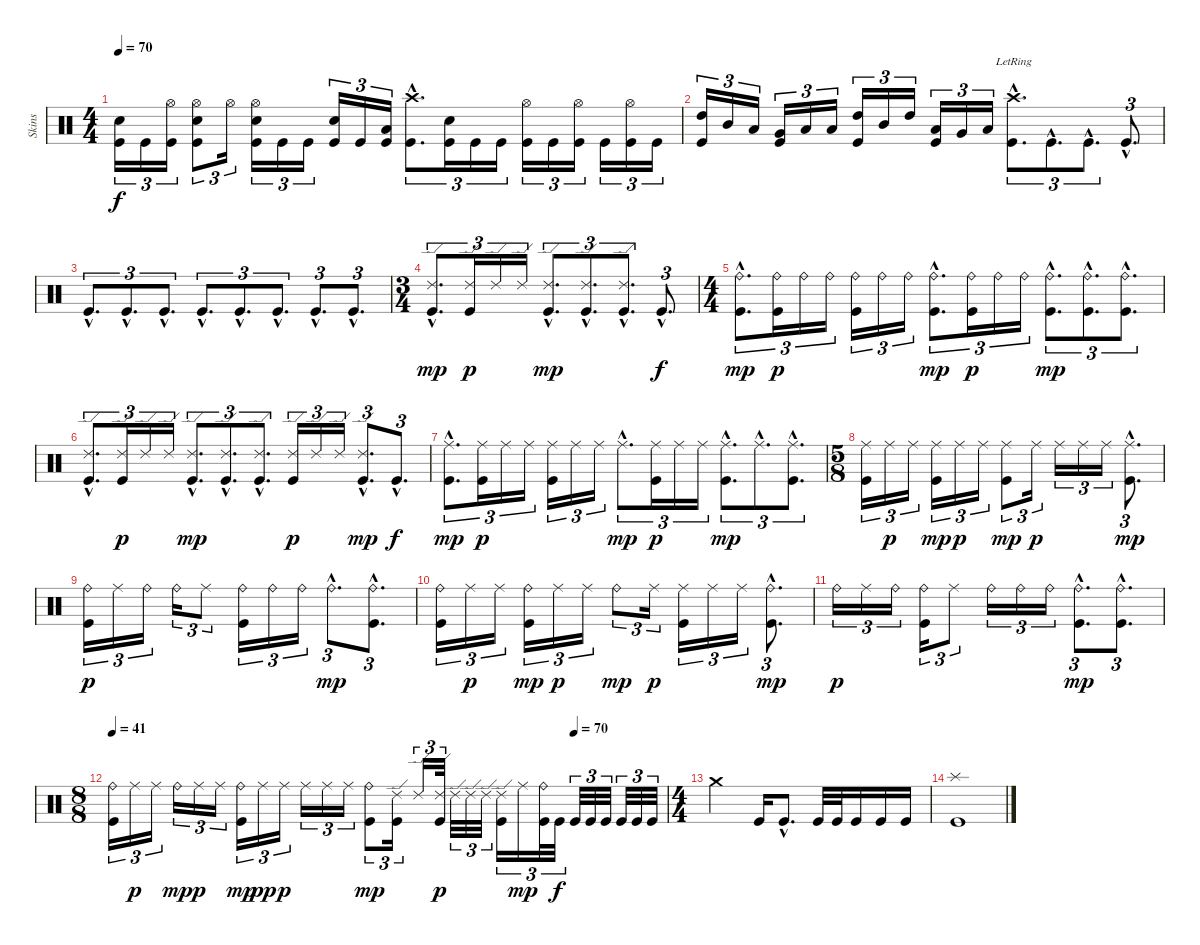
\track ("Skins" "Skins") {instrument percussion}
\staff {score}
\articulation defaults
\ts (4 4)
\tempo 70
\clef neutral
\ks c
("Snare (hit) 2" "Kick (hit)").16{tu (3 2) dy f} "Kick (hit)".16{tu (3 2)} ("Hi-Hat (open)" "Kick (hit)").16{tu (3 2)} ("Snare (hit) 2" "Hi-Hat (open)" "Kick (hit)").8{tu (3 2)} "Hi-Hat (open)".16{tu (3 2)} ("Snare (hit) 2" "Hi-Hat (open)" "Kick (hit)").16{tu (3 2)} "Kick (hit)".16{tu (3 2)} "Kick (hit)".16{tu (3 2)} ("Snare (hit) 2" "Kick (hit)").16{tu (3 2)} "Kick (hit)".16{tu (3 2)} ("Low Tom (hit)" "Kick (hit)").16{tu (3 2)} ("Crash high (hit)"{hac} "Kick (hit)"{hac}).8{d tu (3 2)} ("Snare (hit) 2" "Kick (hit)").16{tu (3 2)} "Kick (hit)".16{tu (3 2)} "Kick (hit)".16{tu (3 2)} ("Hi-Hat (open)" "Kick (hit)").16{tu (3 2)} "Kick (hit)".16{tu (3 2)} ("Hi-Hat (open)" "Kick (hit)").16{tu (3 2)} "Kick (hit)".16{tu (3 2)} ("Hi-Hat (open)" "Kick (hit)").16{tu (3 2)} "Kick (hit)".16{tu (3 2)} |
("High Tom (hit)" "Kick (hit)").16{tu (3 2)} "Mid Tom (hit)".16{tu (3 2)} "Low Tom (hit)".16{tu (3 2)} ("Very Low Tom (hit)" "Kick (hit)").16{tu (3 2)} "Low Floor Tom (hit)".16{tu (3 2)} "Low Floor Tom (hit)".16{tu (3 2)} ("High Tom (hit)" "Kick (hit)").16{tu (3 2)} "Mid Tom (hit)".16{tu (3 2)} "High Tom (hit)".16{tu (3 2)} ("Low Tom (hit)" "Kick (hit)").16{tu (3 2)} "Very Low Tom (hit)".16{tu (3 2)} "Low Floor Tom (hit)".16{tu (3 2)} ("Crash high (hit)"{hac lr} "Kick (hit)"{hac}).8{d tu (3 2)} "Kick (hit)"{hac}.8{d tu (3 2)} "Kick (hit)"{hac}.8{d tu (3 2)} "Kick (hit)"{hac}.8{d tu (3 2)} |
"Kick (hit)"{hac}.8{d tu (3 2)} "Kick (hit)"{hac}.8{d tu (3 2)} "Kick (hit)"{hac}.8{d tu (3 2)} "Kick (hit)"{hac}.8{d tu (3 2)} "Kick (hit)"{hac}.8{d tu (3 2)} "Kick (hit)"{hac}.8{d tu (3 2)} "Kick (hit)"{hac}.8{d tu (3 2)} "Kick (hit)"{hac}.8{d tu (3 2)} |
\ts (3 4)
("Ride (edge) 2"{hac} "Kick (hit)"{hac}).8{d tu (3 2) dy mp} ("Ride (edge) 2" "Kick (hit)").16{tu (3 2) dy p} "Ride (edge) 2".16{tu (3 2)} "Ride (edge) 2".16{tu (3 2)} ("Ride (edge) 2"{hac} "Kick (hit)"{hac}).8{d tu (3 2) dy mp} ("Ride (edge) 2"{hac} "Kick (hit)"{hac}).8{d tu (3 2)} ("Ride (edge) 2"{hac} "Kick (hit)"{hac}).8{d tu (3 2)} "Kick (hit)"{hac}.8{d tu (3 2) dy f} |
\ts (4 4)
("Ride (bell)"{hac} "Kick (hit)"{hac}).8{d tu (3 2) dy mp} ("Ride (bell)" "Kick (hit)").16{tu (3 2) dy p} "Ride (bell)".16{tu (3 2)} "Ride (bell)".16{tu (3 2)} ("Ride (bell)" "Kick (hit)").16{tu (3 2)} "Ride (bell)".16{tu (3 2)} "Ride (bell)".16{tu (3 2)} ("Ride (bell)"{hac} "Kick (hit)"{hac}).8{d tu (3 2) dy mp} ("Ride (bell)" "Kick (hit)").16{tu (3 2) dy p} "Ride (bell)".16{tu (3 2)} "Ride (bell)".16{tu (3 2)} ("Ride (bell)"{hac} "Kick (hit)"{hac}).8{d tu (3 2) dy mp} ("Ride (bell)"{hac} "Kick (hit)"{hac}).8{d tu (3 2)} ("Ride (bell)"{hac} "Kick (hit)"{hac}).8{d tu (3 2)} |
("Ride (edge) 2"{hac} "Kick (hit)"{hac}).8{d tu (3 2)} ("Ride (edge) 2" "Kick (hit)").16{tu (3 2) dy p} "Ride (edge) 2".16{tu (3 2)} "Ride (edge) 2".16{tu (3 2)} ("Ride (edge) 2"{hac} "Kick (hit)"{hac}).8{d tu (3 2) dy mp} ("Ride (edge) 2"{hac} "Kick (hit)"{hac}).8{d tu (3 2)} ("Ride (edge) 2"{hac} "Kick (hit)"{hac}).8{d tu (3 2)} ("Ride (edge) 2" "Kick (hit)").16{tu (3 2) dy p} "Ride (edge) 2".16{tu (3 2)} "Ride (edge) 2".16{tu (3 2)} ("Ride (edge) 2"{hac} "Kick (hit)"{hac}).8{d tu (3 2) dy mp} "Kick (hit)"{hac}.8{d tu (3 2) dy f} |
("Ride (middle)"{hac} "Kick (hit)"{hac}).8{d tu (3 2) dy mp} ("Ride (middle)" "Kick (hit)").16{tu (3 2) dy p} "Ride (middle)".16{tu (3 2)} "Ride (middle)".16{tu (3 2)} ("Ride (middle)" "Kick (hit)").16{tu (3 2)} "Ride (middle)".16{tu (3 2)} "Ride (middle)".16{tu (3 2)} "Ride (middle)"{hac}.8{d tu (3 2) dy mp} ("Ride (middle)" "Kick (hit)").16{tu (3 2) dy p} "Ride (middle)".16{tu (3 2)} "Ride (middle)".16{tu (3 2)} ("Ride (middle)"{hac} "Kick (hit)"{hac}).8{d tu (3 2) dy mp} "Ride (middle)"{hac}.8{d tu (3 2)} ("Ride (middle)"{hac} "Kick (hit)"{hac}).8{d tu (3 2)} |
\ts (5 8)
("Ride (middle)" "Kick (hit)").16{tu (3 2)} "Ride (middle)".16{tu (3 2) dy p} "Ride (middle)".16{tu (3 2)} ("Ride (middle)" "Kick (hit)").16{tu (3 2) dy mp} "Ride (middle)".16{tu (3 2) dy p} "Ride (middle)".16{tu (3 2)} ("Ride (middle)" "Kick (hit)").8{tu (3 2) dy mp} "Ride (middle)".16{tu (3 2) dy p} "Ride (middle)".16{tu (3 2)} "Ride (middle)".16{tu (3 2)} "Ride (middle)".16{tu (3 2)} ("Ride (middle)"{hac} "Kick (hit)"{hac}).8{d tu (3 2) dy mp} |
("Ride (bell)" "Kick (hit)").16{tu (3 2) dy p} "Ride (middle)".16{tu (3 2)} "Ride (bell)".16{tu (3 2)} "Ride (bell)".16{tu (3 2)} "Ride (middle)".8{tu (3 2)} ("Ride (bell)" "Kick (hit)").16{tu (3 2)} "Ride (bell)".16{tu (3 2)} "Ride (bell)".16{tu (3 2)} "Ride (bell)"{hac}.8{d tu (3 2) dy mp} ("Ride (bell)"{hac} "Kick (hit)"{hac}).8{d tu (3 2)} |
("Ride (bell)" "Kick (hit)").16{tu (3 2)} "Ride (middle)".16{tu (3 2) dy p} "Ride (middle)".16{tu (3 2)} ("Ride (bell)" "Kick (hit)").16{tu (3 2) dy mp} "Ride (middle)".16{tu (3 2) dy p} "Ride (middle)".16{tu (3 2)} "Ride (bell)".8{tu (3 2) dy mp} "Ride (middle)".16{tu (3 2) dy p} ("Ride (middle)" "Kick (hit)").16{tu (3 2)} "Ride (middle)".16{tu (3 2)} "Ride (middle)".16{tu (3 2)} ("Ride (bell)"{hac} "Kick (hit)"{hac}).8{d tu (3 2) dy mp} |
"Ride (bell)".16{tu (3 2) dy p} "Ride (middle)".16{tu (3 2)} "Ride (bell)".16{tu (3 2)} ("Ride (bell)" "Kick (hit)").16{tu (3 2)} "Ride (middle)".8{tu (3 2)} "Ride (bell)".16{tu (3 2)} "Ride (bell)".16{tu (3 2)} "Ride (bell)".16{tu (3 2)} ("Ride (bell)"{hac} "Kick (hit)"{hac}).8{d tu (3 2) dy mp} ("Ride (bell)"{hac} "Kick (hit)"{hac}).8{d tu (3 2)} |
\ts (8 8)
\tempo 41
\tempo (70 0.8333333333333334)
("Ride (bell)" "Kick (hit)").16{tu (3 2)} "Ride (middle)".16{tu (3 2) dy p} "Ride (middle)".16{tu (3 2)} "Ride (bell)".16{tu (3 2) dy mp} "Ride (middle)".16{tu (3 2) dy p} "Ride (middle)".16{tu (3 2)} ("Ride (bell)" "Kick (hit)").16{tu (3 2) dy mp} "Ride (middle)".16{tu (3 2) dy pp} "Ride (middle)".16{tu (3 2) dy p} "Ride (middle)".16{tu (3 2)} "Ride (middle)".16{tu (3 2)} "Ride (middle)".16{tu (3 2)} ("Ride (bell)" "Kick (hit)").8{tu (3 2) dy mp} ("Ride (edge) 2" "Kick (hit)").16{tu (3 2)} "Ride (edge) 2".16{tu (3 2)} ("Ride (edge) 2" "Kick (hit)").32{tu (3 2) dy p} "Ride (edge) 2".32{tu (3 2)} "Ride (edge) 2".32{tu (3 2)} "Ride (edge) 2".32{tu (3 2)} ("Ride (edge) 2" "Kick (hit)").16{tu (3 2)} "Ride (middle)".16{tu (3 2) dy mp} ("Ride (bell)" "Kick (hit)").32{tu (3 2)} "Kick (hit)".32{tu (3 2) dy f} "Kick (hit)".32{tu (3 2)} "Kick (hit)".32{tu (3 2)} "Kick (hit)".32{tu (3 2)} "Kick (hit)".32{tu (3 2)} "Kick (hit)".32{tu (3 2)} "Kick (hit)".32{tu (3 2)} |
\ts (4 4)
"Crash medium (hit)".2 "Kick (hit)".16 "Kick (hit)"{hac}.8{d} "Kick (hit)".32 "Kick (hit)".32 "Kick (hit)".16 "Kick (hit)".16 "Kick (hit)".16 |
("Splash (hit)" "Kick (hit)").1
